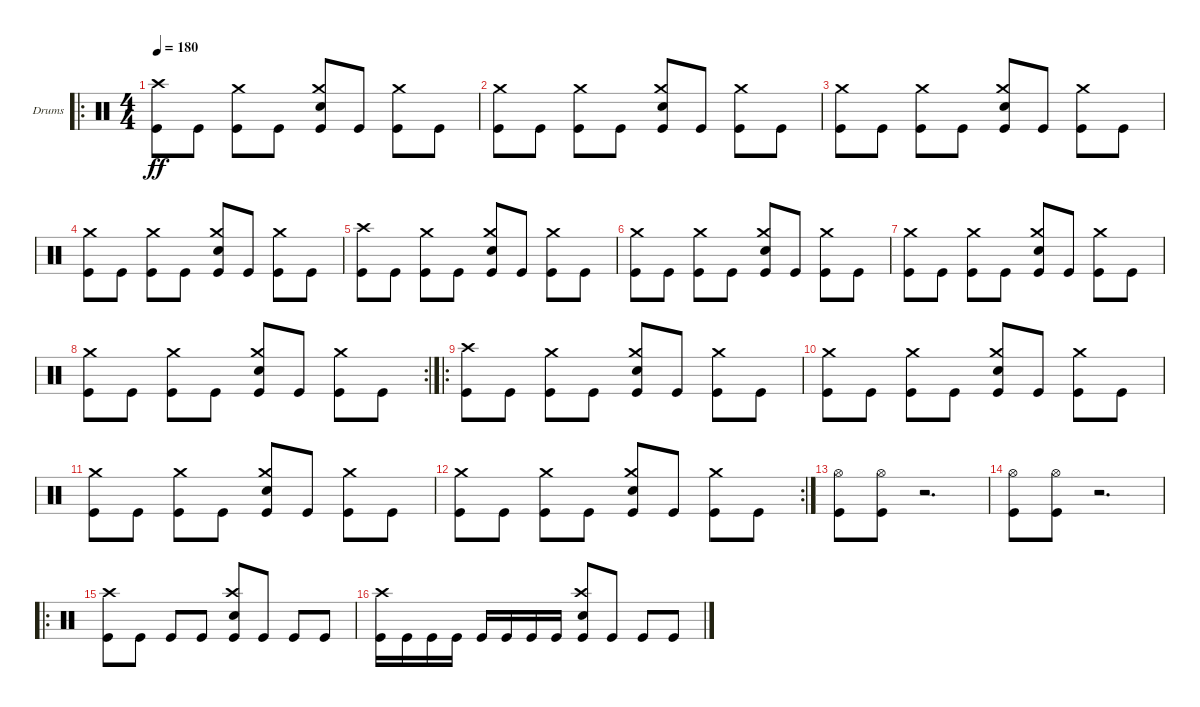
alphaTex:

\bracketExtendMode groupsimilarinstruments
\firstSystemTrackNameOrientation horizontal
\otherSystemsTrackNameOrientation horizontal
\track ("Drumkit" "Drums") {instrument percussion}
\staff {score}
\articulation defaults
\ro
\ts (4 4)
\tempo 180
\clef neutral
\ks c
("Kick (hit)" "Crash high (hit)").8{dy ff} "Kick (hit)".8 ("Kick (hit)" "Crash medium (hit)").8 "Kick (hit)".8 ("Kick (hit)" "Crash medium (hit)" "Snare (hit) 2").8 "Kick (hit)".8 ("Kick (hit)" "Crash medium (hit)").8 "Kick (hit)".8 |
("Kick (hit)" "Crash medium (hit)").8 "Kick (hit)".8 ("Kick (hit)" "Crash medium (hit)").8 "Kick (hit)".8 ("Kick (hit)" "Crash medium (hit)" "Snare (hit) 2").8 "Kick (hit)".8 ("Kick (hit)" "Crash medium (hit)").8 "Kick (hit)".8 |
("Kick (hit)" "Crash medium (hit)").8 "Kick (hit)".8 ("Kick (hit)" "Crash medium (hit)").8 "Kick (hit)".8 ("Kick (hit)" "Crash medium (hit)" "Snare (hit) 2").8 "Kick (hit)".8 ("Kick (hit)" "Crash medium (hit)").8 "Kick (hit)".8 |
("Kick (hit)" "Crash medium (hit)").8 "Kick (hit)".8 ("Kick (hit)" "Crash medium (hit)").8 "Kick (hit)".8 ("Kick (hit)" "Crash medium (hit)" "Snare (hit) 2").8 "Kick (hit)".8 ("Kick (hit)" "Crash medium (hit)").8 "Kick (hit)".8 |
("Kick (hit)" "Crash high (hit)").8 "Kick (hit)".8 ("Kick (hit)" "Crash medium (hit)").8 "Kick (hit)".8 ("Kick (hit)" "Crash medium (hit)" "Snare (hit) 2").8 "Kick (hit)".8 ("Kick (hit)" "Crash medium (hit)").8 "Kick (hit)".8 |
("Kick (hit)" "Crash medium (hit)").8 "Kick (hit)".8 ("Kick (hit)" "Crash medium (hit)").8 "Kick (hit)".8 ("Kick (hit)" "Crash medium (hit)" "Snare (hit) 2").8 "Kick (hit)".8 ("Kick (hit)" "Crash medium (hit)").8 "Kick (hit)".8 |
("Kick (hit)" "Crash medium (hit)").8 "Kick (hit)".8 ("Kick (hit)" "Crash medium (hit)").8 "Kick (hit)".8 ("Kick (hit)" "Crash medium (hit)" "Snare (hit) 2").8 "Kick (hit)".8 ("Kick (hit)" "Crash medium (hit)").8 "Kick (hit)".8 |
\rc 2
("Kick (hit)" "Crash medium (hit)").8 "Kick (hit)".8 ("Kick (hit)" "Crash medium (hit)").8 "Kick (hit)".8 ("Kick (hit)" "Crash medium (hit)" "Snare (hit) 2").8 "Kick (hit)".8 ("Kick (hit)" "Crash medium (hit)").8 "Kick (hit)".8 |
\ro
("Kick (hit)" "Crash high (hit)").8 "Kick (hit)".8 ("Kick (hit)" "Crash medium (hit)").8 "Kick (hit)".8 ("Kick (hit)" "Crash medium (hit)" "Snare (hit) 2").8 "Kick (hit)".8 ("Kick (hit)" "Crash medium (hit)").8 "Kick (hit)".8 |
("Kick (hit)" "Crash medium (hit)").8 "Kick (hit)".8 ("Kick (hit)" "Crash medium (hit)").8 "Kick (hit)".8 ("Kick (hit)" "Crash medium (hit)" "Snare (hit) 2").8 "Kick (hit)".8 ("Kick (hit)" "Crash medium (hit)").8 "Kick (hit)".8 |
("Kick (hit)" "Crash medium (hit)").8 "Kick (hit)".8 ("Kick (hit)" "Crash medium (hit)").8 "Kick (hit)".8 ("Kick (hit)" "Crash medium (hit)" "Snare (hit) 2").8 "Kick (hit)".8 ("Kick (hit)" "Crash medium (hit)").8 "Kick (hit)".8 |
\rc 2
("Kick (hit)" "Crash medium (hit)").8 "Kick (hit)".8 ("Kick (hit)" "Crash medium (hit)").8 "Kick (hit)".8 ("Kick (hit)" "Crash medium (hit)" "Snare (hit) 2").8 "Kick (hit)".8 ("Kick (hit)" "Crash medium (hit)").8 "Kick (hit)".8 |
("Kick (hit)" "Hi-Hat (open)").8 ("Kick (hit)" "Hi-Hat (open)").8 r.2{d} |
("Kick (hit)" "Hi-Hat (open)").8 ("Kick (hit)" "Hi-Hat (open)").8 r.2{d} |
\ro
("Kick (hit)" "Crash high (hit)").8 "Kick (hit)".8 "Kick (hit)".8 "Kick (hit)".8 ("Kick (hit)" "Crash high (hit)" "Snare (hit) 2").8 "Kick (hit)".8 "Kick (hit)".8 "Kick (hit)".8 |
("Kick (hit)" "Crash high (hit)").16 "Kick (hit)".16 "Kick (hit)".16 "Kick (hit)".16 "Kick (hit)".16 "Kick (hit)".16 "Kick (hit)".16 "Kick (hit)".16 ("Kick (hit)" "Crash high (hit)" "Snare (hit) 2").8 "Kick (hit)".8 "Kick (hit)".8 "Kick (hit)".8
